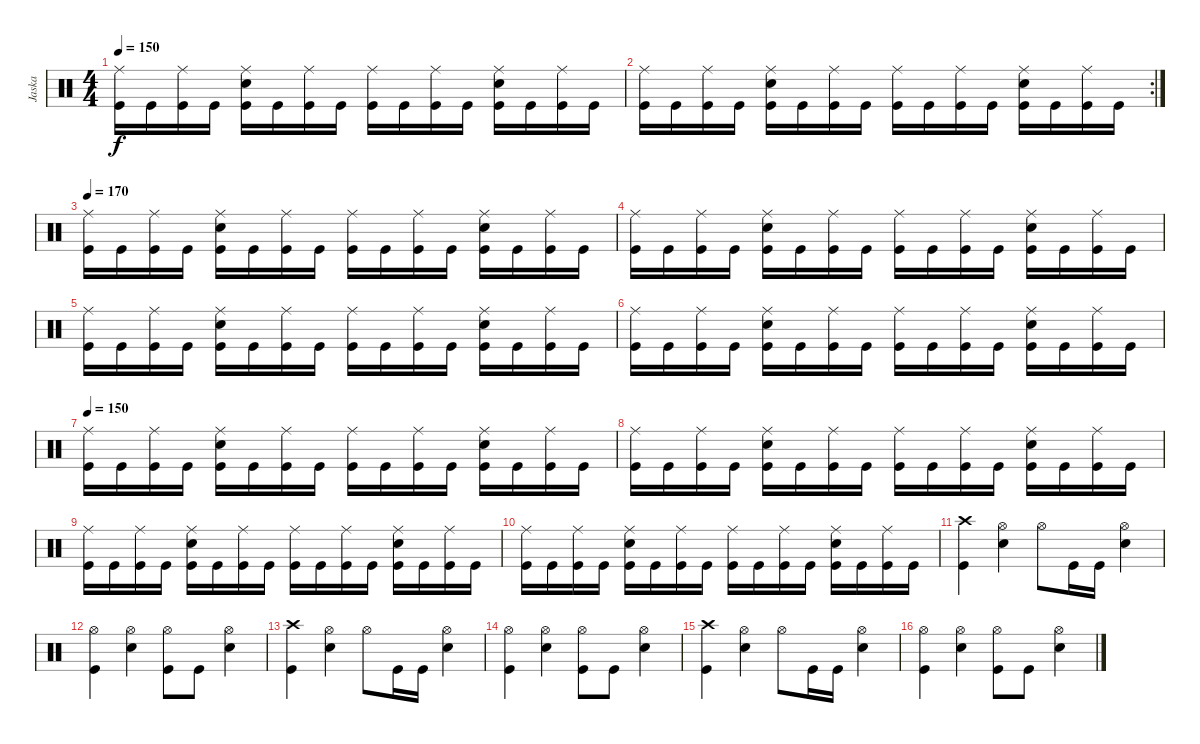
\track ("Jaska" "Jaska") {instrument percussion}
\staff {score}
\articulation defaults
\ts (4 4)
\tempo 150
\clef neutral
\ks c
("Ride (middle)" "Kick (hit)").16{dy f} "Kick (hit)".16 ("Ride (middle)" "Kick (hit)").16 "Kick (hit)".16 ("Ride (middle)" "Snare (hit) 2" "Kick (hit)").16 "Kick (hit)".16 ("Ride (middle)" "Kick (hit)").16 "Kick (hit)".16 ("Ride (middle)" "Kick (hit)").16 "Kick (hit)".16 ("Ride (middle)" "Kick (hit)").16 "Kick (hit)".16 ("Ride (middle)" "Snare (hit) 2" "Kick (hit)").16 "Kick (hit)".16 ("Ride (middle)" "Kick (hit)").16 "Kick (hit)".16 |
\rc 2
("Ride (middle)" "Kick (hit)").16 "Kick (hit)".16 ("Ride (middle)" "Kick (hit)").16 "Kick (hit)".16 ("Ride (middle)" "Snare (hit) 2" "Kick (hit)").16 "Kick (hit)".16 ("Ride (middle)" "Kick (hit)").16 "Kick (hit)".16 ("Ride (middle)" "Kick (hit)").16 "Kick (hit)".16 ("Ride (middle)" "Kick (hit)").16 "Kick (hit)".16 ("Ride (middle)" "Snare (hit) 2" "Kick (hit)").16 "Kick (hit)".16 ("Ride (middle)" "Kick (hit)").16 "Kick (hit)".16 |
\tempo 170
("Ride (middle)" "Kick (hit)").16 "Kick (hit)".16 ("Ride (middle)" "Kick (hit)").16 "Kick (hit)".16 ("Ride (middle)" "Snare (hit) 2" "Kick (hit)").16 "Kick (hit)".16 ("Ride (middle)" "Kick (hit)").16 "Kick (hit)".16 ("Ride (middle)" "Kick (hit)").16 "Kick (hit)".16 ("Ride (middle)" "Kick (hit)").16 "Kick (hit)".16 ("Ride (middle)" "Snare (hit) 2" "Kick (hit)").16 "Kick (hit)".16 ("Ride (middle)" "Kick (hit)").16 "Kick (hit)".16 |
("Ride (middle)" "Kick (hit)").16 "Kick (hit)".16 ("Ride (middle)" "Kick (hit)").16 "Kick (hit)".16 ("Ride (middle)" "Snare (hit) 2" "Kick (hit)").16 "Kick (hit)".16 ("Ride (middle)" "Kick (hit)").16 "Kick (hit)".16 ("Ride (middle)" "Kick (hit)").16 "Kick (hit)".16 ("Ride (middle)" "Kick (hit)").16 "Kick (hit)".16 ("Ride (middle)" "Snare (hit) 2" "Kick (hit)").16 "Kick (hit)".16 ("Ride (middle)" "Kick (hit)").16 "Kick (hit)".16 |
("Ride (middle)" "Kick (hit)").16 "Kick (hit)".16 ("Ride (middle)" "Kick (hit)").16 "Kick (hit)".16 ("Ride (middle)" "Snare (hit) 2" "Kick (hit)").16 "Kick (hit)".16 ("Ride (middle)" "Kick (hit)").16 "Kick (hit)".16 ("Ride (middle)" "Kick (hit)").16 "Kick (hit)".16 ("Ride (middle)" "Kick (hit)").16 "Kick (hit)".16 ("Ride (middle)" "Snare (hit) 2" "Kick (hit)").16 "Kick (hit)".16 ("Ride (middle)" "Kick (hit)").16 "Kick (hit)".16 |
("Ride (middle)" "Kick (hit)").16 "Kick (hit)".16 ("Ride (middle)" "Kick (hit)").16 "Kick (hit)".16 ("Ride (middle)" "Snare (hit) 2" "Kick (hit)").16 "Kick (hit)".16 ("Ride (middle)" "Kick (hit)").16 "Kick (hit)".16 ("Ride (middle)" "Kick (hit)").16 "Kick (hit)".16 ("Ride (middle)" "Kick (hit)").16 "Kick (hit)".16 ("Ride (middle)" "Snare (hit) 2" "Kick (hit)").16 "Kick (hit)".16 ("Ride (middle)" "Kick (hit)").16 "Kick (hit)".16 |
\tempo 150
("Ride (middle)" "Kick (hit)").16 "Kick (hit)".16 ("Ride (middle)" "Kick (hit)").16 "Kick (hit)".16 ("Ride (middle)" "Snare (hit) 2" "Kick (hit)").16 "Kick (hit)".16 ("Ride (middle)" "Kick (hit)").16 "Kick (hit)".16 ("Ride (middle)" "Kick (hit)").16 "Kick (hit)".16 ("Ride (middle)" "Kick (hit)").16 "Kick (hit)".16 ("Ride (middle)" "Snare (hit) 2" "Kick (hit)").16 "Kick (hit)".16 ("Ride (middle)" "Kick (hit)").16 "Kick (hit)".16 |
("Ride (middle)" "Kick (hit)").16 "Kick (hit)".16 ("Ride (middle)" "Kick (hit)").16 "Kick (hit)".16 ("Ride (middle)" "Snare (hit) 2" "Kick (hit)").16 "Kick (hit)".16 ("Ride (middle)" "Kick (hit)").16 "Kick (hit)".16 ("Ride (middle)" "Kick (hit)").16 "Kick (hit)".16 ("Ride (middle)" "Kick (hit)").16 "Kick (hit)".16 ("Ride (middle)" "Snare (hit) 2" "Kick (hit)").16 "Kick (hit)".16 ("Ride (middle)" "Kick (hit)").16 "Kick (hit)".16 |
("Ride (middle)" "Kick (hit)").16 "Kick (hit)".16 ("Ride (middle)" "Kick (hit)").16 "Kick (hit)".16 ("Ride (middle)" "Snare (hit) 2" "Kick (hit)").16 "Kick (hit)".16 ("Ride (middle)" "Kick (hit)").16 "Kick (hit)".16 ("Ride (middle)" "Kick (hit)").16 "Kick (hit)".16 ("Ride (middle)" "Kick (hit)").16 "Kick (hit)".16 ("Ride (middle)" "Snare (hit) 2" "Kick (hit)").16 "Kick (hit)".16 ("Ride (middle)" "Kick (hit)").16 "Kick (hit)".16 |
("Ride (middle)" "Kick (hit)").16 "Kick (hit)".16 ("Ride (middle)" "Kick (hit)").16 "Kick (hit)".16 ("Ride (middle)" "Snare (hit) 2" "Kick (hit)").16 "Kick (hit)".16 ("Ride (middle)" "Kick (hit)").16 "Kick (hit)".16 ("Ride (middle)" "Kick (hit)").16 "Kick (hit)".16 ("Ride (middle)" "Kick (hit)").16 "Kick (hit)".16 ("Ride (middle)" "Snare (hit) 2" "Kick (hit)").16 "Kick (hit)".16 ("Ride (middle)" "Kick (hit)").16 "Kick (hit)".16 |
("Crash high (hit)" "Kick (hit)").4 ("Hi-Hat (open)" "Snare (hit) 2").4 "Hi-Hat (open)".8 "Kick (hit)".16 "Kick (hit)".16 ("Hi-Hat (open)" "Snare (hit) 2").4 |
("Hi-Hat (open)" "Kick (hit)").4 ("Hi-Hat (open)" "Snare (hit) 2").4 ("Hi-Hat (open)" "Kick (hit)").8 "Kick (hit)".8 ("Hi-Hat (open)" "Snare (hit) 2").4 |
("Crash high (hit)" "Kick (hit)").4 ("Hi-Hat (open)" "Snare (hit) 2").4 "Hi-Hat (open)".8 "Kick (hit)".16 "Kick (hit)".16 ("Hi-Hat (open)" "Snare (hit) 2").4 |
("Hi-Hat (open)" "Kick (hit)").4 ("Hi-Hat (open)" "Snare (hit) 2").4 ("Hi-Hat (open)" "Kick (hit)").8 "Kick (hit)".8 ("Hi-Hat (open)" "Snare (hit) 2").4 |
("Crash high (hit)" "Kick (hit)").4 ("Hi-Hat (open)" "Snare (hit) 2").4 "Hi-Hat (open)".8 "Kick (hit)".16 "Kick (hit)".16 ("Hi-Hat (open)" "Snare (hit) 2").4 |
("Hi-Hat (open)" "Kick (hit)").4 ("Hi-Hat (open)" "Snare (hit) 2").4 ("Hi-Hat (open)" "Kick (hit)").8 "Kick (hit)".8 ("Hi-Hat (open)" "Snare (hit) 2").4
